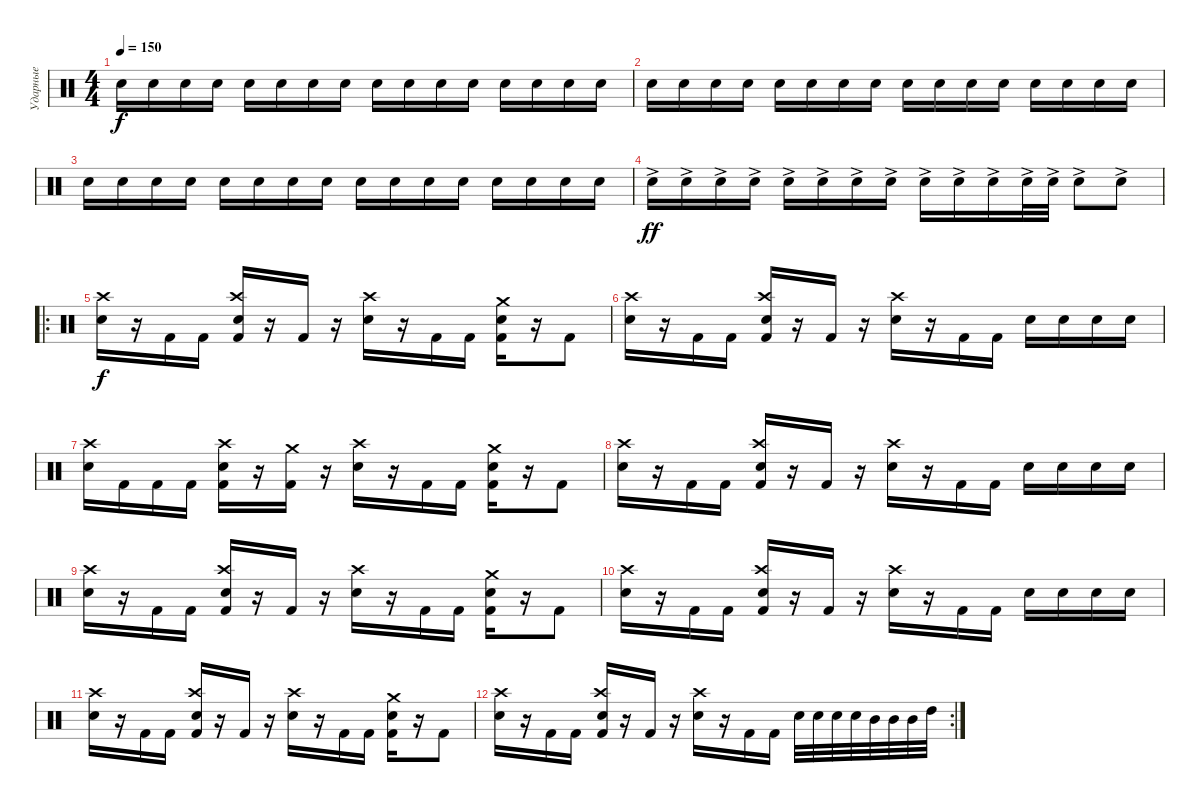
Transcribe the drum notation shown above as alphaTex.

\track ("Ударные" "Ударные") {instrument percussion}
\staff {score}
\articulation defaults
\ts (4 4)
\tempo 150
\clef neutral
\ks c "Electric Snare (hit)".16{dy f} "Electric Snare (hit)".16 "Electric Snare (hit)".16 "Electric Snare (hit)".16 "Electric Snare (hit)".16 "Electric Snare (hit)".16 "Electric Snare (hit)".16 "Electric Snare (hit)".16 "Electric Snare (hit)".16 "Electric Snare (hit)".16 "Electric Snare (hit)".16 "Electric Snare (hit)".16 "Electric Snare (hit)".16 "Electric Snare (hit)".16 "Electric Snare (hit)".16 "Electric Snare (hit)".16
|
"Electric Snare (hit)".16 "Electric Snare (hit)".16 "Electric Snare (hit)".16 "Electric Snare (hit)".16 "Electric Snare (hit)".16 "Electric Snare (hit)".16 "Electric Snare (hit)".16 "Electric Snare (hit)".16 "Electric Snare (hit)".16 "Electric Snare (hit)".16 "Electric Snare (hit)".16 "Electric Snare (hit)".16 "Electric Snare (hit)".16 "Electric Snare (hit)".16 "Electric Snare (hit)".16 "Electric Snare (hit)".16 |
"Electric Snare (hit)".16 "Electric Snare (hit)".16 "Electric Snare (hit)".16 "Electric Snare (hit)".16 "Electric Snare (hit)".16 "Electric Snare (hit)".16 "Electric Snare (hit)".16 "Electric Snare (hit)".16 "Electric Snare (hit)".16 "Electric Snare (hit)".16 "Electric Snare (hit)".16 "Electric Snare (hit)".16 "Electric Snare (hit)".16 "Electric Snare (hit)".16 "Electric Snare (hit)".16 "Electric Snare (hit)".16 |
"Electric Snare (hit)"{ac}.16{dy ff} "Electric Snare (hit)"{ac}.16 "Electric Snare (hit)"{ac}.16 "Electric Snare (hit)"{ac}.16 "Electric Snare (hit)"{ac}.16 "Electric Snare (hit)"{ac}.16 "Electric Snare (hit)"{ac}.16 "Electric Snare (hit)"{ac}.16 "Electric Snare (hit)"{ac}.16 "Electric Snare (hit)"{ac}.16 "Electric Snare (hit)"{ac}.16 "Electric Snare (hit)"{ac}.32 "Electric Snare (hit)"{ac}.32 "Electric Snare (hit)"{ac}.8 "Electric Snare (hit)"{ac}.8 |
\ro
("Crash high (hit)" "Electric Snare (hit)").16{dy f} r.16 "Kick (hit) 2".16 "Kick (hit) 2".16 ("Crash high (hit)" "Electric Snare (hit)" "Kick (hit) 2").16 r.16 "Kick (hit) 2".16 r.16 ("Crash high (hit)" "Electric Snare (hit)").16 r.16 "Kick (hit) 2".16 "Kick (hit) 2".16 ("Crash medium (hit)" "Electric Snare (hit)" "Kick (hit) 2").16 r.16 "Kick (hit) 2".8 |
("Crash high (hit)" "Electric Snare (hit)").16 r.16 "Kick (hit) 2".16 "Kick (hit) 2".16 ("Crash high (hit)" "Electric Snare (hit)" "Kick (hit) 2").16 r.16 "Kick (hit) 2".16 r.16 ("Crash high (hit)" "Electric Snare (hit)").16 r.16 "Kick (hit) 2".16 "Kick (hit) 2".16 "Electric Snare (hit)".16 "Electric Snare (hit)".16 "Electric Snare (hit)".16 "Electric Snare (hit)".16 |
("Crash high (hit)" "Electric Snare (hit)").16 "Kick (hit) 2".16 "Kick (hit) 2".16 "Kick (hit) 2".16 ("Crash high (hit)" "Electric Snare (hit)" "Kick (hit) 2").16 r.16 ("Crash medium (hit)" "Kick (hit) 2").16 r.16 ("Crash high (hit)" "Electric Snare (hit)").16 r.16 "Kick (hit) 2".16 "Kick (hit) 2".16 ("Crash medium (hit)" "Electric Snare (hit)" "Kick (hit) 2").16 r.16 "Kick (hit) 2".8 |
("Crash high (hit)" "Electric Snare (hit)").16 r.16 "Kick (hit) 2".16 "Kick (hit) 2".16 ("Crash high (hit)" "Electric Snare (hit)" "Kick (hit) 2").16 r.16 "Kick (hit) 2".16 r.16 ("Crash high (hit)" "Electric Snare (hit)").16 r.16 "Kick (hit) 2".16 "Kick (hit) 2".16 "Electric Snare (hit)".16 "Electric Snare (hit)".16 "Electric Snare (hit)".16 "Electric Snare (hit)".16 |
("Crash high (hit)" "Electric Snare (hit)").16 r.16 "Kick (hit) 2".16 "Kick (hit) 2".16 ("Crash high (hit)" "Electric Snare (hit)" "Kick (hit) 2").16 r.16 "Kick (hit) 2".16 r.16 ("Crash high (hit)" "Electric Snare (hit)").16 r.16 "Kick (hit) 2".16 "Kick (hit) 2".16 ("Crash medium (hit)" "Electric Snare (hit)" "Kick (hit) 2").16 r.16 "Kick (hit) 2".8 |
("Crash high (hit)" "Electric Snare (hit)").16 r.16 "Kick (hit) 2".16 "Kick (hit) 2".16 ("Crash high (hit)" "Electric Snare (hit)" "Kick (hit) 2").16 r.16 "Kick (hit) 2".16 r.16 ("Crash high (hit)" "Electric Snare (hit)").16 r.16 "Kick (hit) 2".16 "Kick (hit) 2".16 "Electric Snare (hit)".16 "Electric Snare (hit)".16 "Electric Snare (hit)".16 "Electric Snare (hit)".16 |
("Crash high (hit)" "Electric Snare (hit)").16 r.16 "Kick (hit) 2".16 "Kick (hit) 2".16 ("Crash high (hit)" "Electric Snare (hit)" "Kick (hit) 2").16 r.16 "Kick (hit) 2".16 r.16 ("Crash high (hit)" "Electric Snare (hit)").16 r.16 "Kick (hit) 2".16 "Kick (hit) 2".16 ("Crash medium (hit)" "Electric Snare (hit)" "Kick (hit) 2").16 r.16 "Kick (hit) 2".8 |
\rc 2
("Crash high (hit)" "Electric Snare (hit)").16 r.16 "Kick (hit) 2".16 "Kick (hit) 2".16 ("Crash high (hit)" "Electric Snare (hit)" "Kick (hit) 2").16 r.16 "Kick (hit) 2".16 r.16 ("Crash high (hit)" "Electric Snare (hit)").16 r.16 "Kick (hit) 2".16 "Kick (hit) 2".16 "Electric Snare (hit)".32 "Electric Snare (hit)".32 "Electric Snare (hit)".32 "Electric Snare (hit)".32 "Mid Tom (hit)".32 "Mid Tom (hit)".32 "Mid Tom (hit)".32 "High Tom (hit)".32
